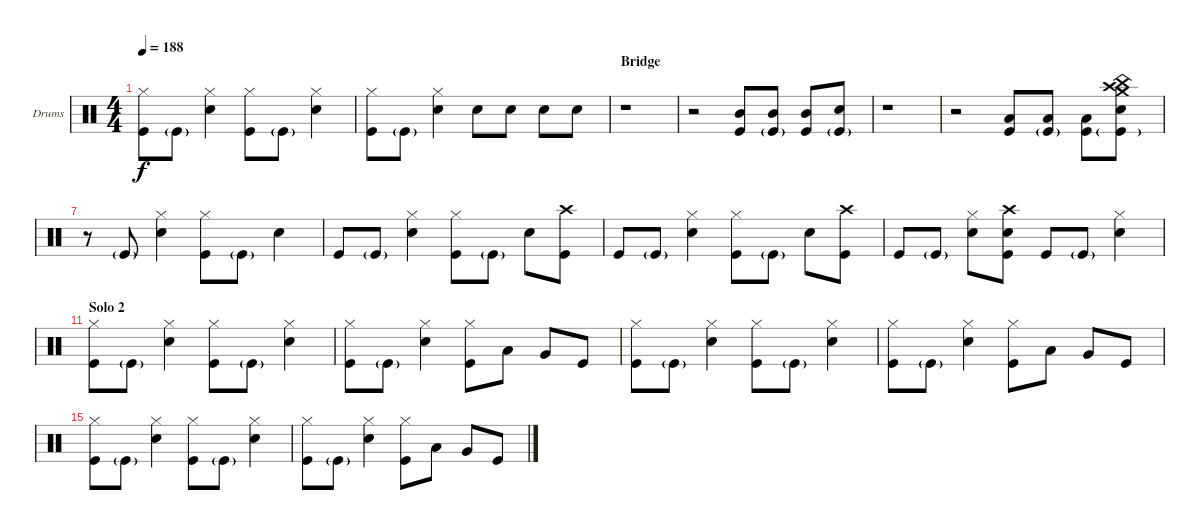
\bracketExtendMode nobrackets
\firstSystemTrackNameOrientation horizontal
\otherSystemsTrackNameOrientation horizontal
\defaultBarNumberDisplay FirstOfSystem
\track ("Drumkit" "Drums") {instrument percussion}
\staff {score}
\articulation defaults
\ts (4 4)
\tempo 188
\clef neutral
\ks c
("Kick (hit)" "Hi-Hat (closed)").8{dy f} "Kick (hit)"{g}.8 ("Hi-Hat (closed)" "Snare (hit) 2").4 ("Hi-Hat (closed)" "Kick (hit)").8 "Kick (hit)"{g}.8 ("Hi-Hat (closed)" "Snare (hit) 2").4 |
("Hi-Hat (closed)" "Kick (hit)").8 "Kick (hit)"{g}.8 ("Hi-Hat (closed)" "Snare (hit) 2").4 "Snare (hit) 2".8 "Snare (hit) 2".8 "Snare (hit) 2".8 "Snare (hit) 2".8 |
\section ("" "Bridge")
r.1 |
r.2 ("Kick (hit)" "Mid Tom (hit)").8 ("Kick (hit)"{g} "Mid Tom (hit)").8 ("Kick (hit)" "Mid Tom (hit)").8 ("Kick (hit)"{g} "Snare (hit) 2").8 |
r.1 |
r.2 ("Kick (hit)" "Low Tom (hit)").8 ("Kick (hit)"{g} "Low Tom (hit)").8 ("Kick (hit)" "Low Tom (hit)").8 ("Kick (hit)"{g} "Crash high (hit)" "Snare (hit) 2" "China (hit)" "Crash medium (hit)").8 |
r.8 "Kick (hit)"{g}.8 ("Hi-Hat (closed)" "Snare (hit) 2").4 ("Hi-Hat (closed)" "Kick (hit)").8 "Kick (hit)"{g}.8 "Snare (hit) 2".4 |
"Kick (hit)".8 "Kick (hit)"{g}.8 ("Hi-Hat (closed)" "Snare (hit) 2").4 ("Hi-Hat (closed)" "Kick (hit)").8 "Kick (hit)"{g}.8 "Snare (hit) 2".8 ("Kick (hit)" "Crash high (hit)").8 |
"Kick (hit)".8 "Kick (hit)"{g}.8 ("Hi-Hat (closed)" "Snare (hit) 2").4 ("Hi-Hat (closed)" "Kick (hit)").8 "Kick (hit)"{g}.8 "Snare (hit) 2".8 ("Kick (hit)" "Crash high (hit)").8 |
"Kick (hit)".8 "Kick (hit)"{g}.8 ("Hi-Hat (closed)" "Snare (hit) 2").8 ("Crash high (hit)" "Kick (hit)" "Snare (hit) 2").8 "Kick (hit)".8 "Kick (hit)"{g}.8 ("Hi-Hat (closed)" "Snare (hit) 2").4 |
\section ("" "Solo 2")
("Hi-Hat (closed)" "Kick (hit)").8 "Kick (hit)"{g}.8 ("Hi-Hat (closed)" "Snare (hit) 2").4 ("Hi-Hat (closed)" "Kick (hit)").8 "Kick (hit)"{g}.8 ("Hi-Hat (closed)" "Snare (hit) 2").4 |
("Hi-Hat (closed)" "Kick (hit)").8 "Kick (hit)"{g}.8 ("Hi-Hat (closed)" "Snare (hit) 2").4 ("Hi-Hat (closed)" "Kick (hit)").8 "Low Tom (hit)".8 "Very Low Tom (hit)".8 "Kick (hit)".8 |
("Kick (hit)" "Hi-Hat (closed)").8 "Kick (hit)"{g}.8 ("Hi-Hat (closed)" "Snare (hit) 2").4 ("Hi-Hat (closed)" "Kick (hit)").8 "Kick (hit)"{g}.8 ("Hi-Hat (closed)" "Snare (hit) 2").4 |
("Hi-Hat (closed)" "Kick (hit)").8 "Kick (hit)"{g}.8 ("Hi-Hat (closed)" "Snare (hit) 2").4 ("Hi-Hat (closed)" "Kick (hit)").8 "Low Tom (hit)".8 "Very Low Tom (hit)".8 "Kick (hit)".8 |
("Kick (hit)" "Hi-Hat (closed)").8 "Kick (hit)"{g}.8 ("Hi-Hat (closed)" "Snare (hit) 2").4 ("Hi-Hat (closed)" "Kick (hit)").8 "Kick (hit)"{g}.8 ("Hi-Hat (closed)" "Snare (hit) 2").4 |
("Hi-Hat (closed)" "Kick (hit)").8 "Kick (hit)"{g}.8 ("Hi-Hat (closed)" "Snare (hit) 2").4 ("Hi-Hat (closed)" "Kick (hit)").8 "Low Tom (hit)".8 "Very Low Tom (hit)".8 "Kick (hit)".8
